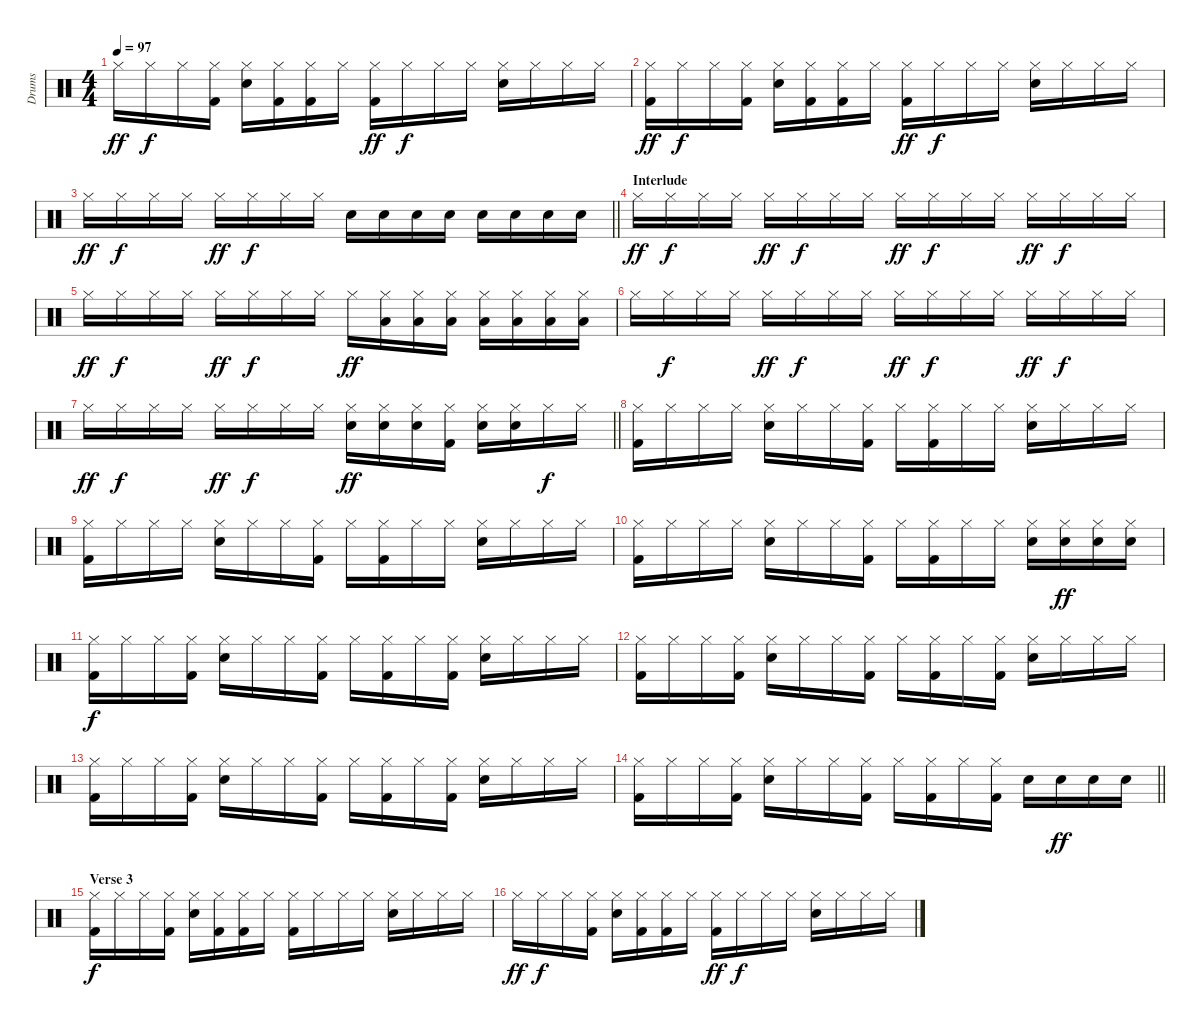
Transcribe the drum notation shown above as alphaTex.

\track ("Drums" "Drums") {instrument percussion}
\staff {score}
\articulation defaults
\ts (4 4)
\tempo 97
\clef neutral
\ks c "Hi-Hat (closed)".16{dy ff} "Hi-Hat (closed)".16{dy f} "Hi-Hat (closed)".16
("Hi-Hat (closed)" "Kick (hit) 2").16 ("Hi-Hat (closed)" "Snare (hit) 2").16 ("Hi-Hat (closed)" "Kick (hit) 2").16 ("Hi-Hat (closed)" "Kick (hit) 2").16 "Hi-Hat (closed)".16 ("Hi-Hat (closed)" "Kick (hit) 2").16{dy ff} "Hi-Hat (closed)".16{dy f} "Hi-Hat (closed)".16 "Hi-Hat (closed)".16 ("Hi-Hat (closed)" "Snare (hit) 2").16 "Hi-Hat (closed)".16 "Hi-Hat (closed)".16 "Hi-Hat (closed)".16 |
("Hi-Hat (closed)" "Kick (hit) 2").16{dy ff} "Hi-Hat (closed)".16{dy f} "Hi-Hat (closed)".16 ("Hi-Hat (closed)" "Kick (hit) 2").16 ("Hi-Hat (closed)" "Snare (hit) 2").16 ("Hi-Hat (closed)" "Kick (hit) 2").16 ("Hi-Hat (closed)" "Kick (hit) 2").16 "Hi-Hat (closed)".16 ("Hi-Hat (closed)" "Kick (hit) 2").16{dy ff} "Hi-Hat (closed)".16{dy f} "Hi-Hat (closed)".16 "Hi-Hat (closed)".16 ("Hi-Hat (closed)" "Snare (hit) 2").16 "Hi-Hat (closed)".16 "Hi-Hat (closed)".16 "Hi-Hat (closed)".16 |
\barLineRight lightlight "Hi-Hat (closed)".16{dy ff} "Hi-Hat (closed)".16{dy f} "Hi-Hat (closed)".16 "Hi-Hat (closed)".16 "Hi-Hat (closed)".16{dy ff} "Hi-Hat (closed)".16{dy f} "Hi-Hat (closed)".16 "Hi-Hat (closed)".16 "Snare (hit) 2".16 "Snare (hit) 2".16 "Snare (hit) 2".16 "Snare (hit) 2".16 "Snare (hit) 2".16 "Snare (hit) 2".16 "Snare (hit) 2".16 "Snare (hit) 2".16
|
\section ("" "Interlude")
"Hi-Hat (closed)".16{dy ff} "Hi-Hat (closed)".16{dy f} "Hi-Hat (closed)".16 "Hi-Hat (closed)".16 "Hi-Hat (closed)".16{dy ff} "Hi-Hat (closed)".16{dy f} "Hi-Hat (closed)".16 "Hi-Hat (closed)".16 "Hi-Hat (closed)".16{dy ff} "Hi-Hat (closed)".16{dy f} "Hi-Hat (closed)".16 "Hi-Hat (closed)".16 "Hi-Hat (closed)".16{dy ff} "Hi-Hat (closed)".16{dy f} "Hi-Hat (closed)".16 "Hi-Hat (closed)".16 |
"Hi-Hat (closed)".16{dy ff} "Hi-Hat (closed)".16{dy f} "Hi-Hat (closed)".16 "Hi-Hat (closed)".16 "Hi-Hat (closed)".16{dy ff} "Hi-Hat (closed)".16{dy f} "Hi-Hat (closed)".16 "Hi-Hat (closed)".16 "Hi-Hat (closed)".16{dy ff} ("Hi-Hat (closed)" "Low Tom (hit)").16 ("Hi-Hat (closed)" "Low Tom (hit)").16 ("Hi-Hat (closed)" "Low Tom (hit)").16 ("Hi-Hat (closed)" "Low Tom (hit)").16 ("Hi-Hat (closed)" "Low Tom (hit)").16 ("Hi-Hat (closed)" "Low Tom (hit)").16 ("Hi-Hat (closed)" "Low Tom (hit)").16 |
"Hi-Hat (closed)".16 "Hi-Hat (closed)".16{dy f} "Hi-Hat (closed)".16 "Hi-Hat (closed)".16 "Hi-Hat (closed)".16{dy ff} "Hi-Hat (closed)".16{dy f} "Hi-Hat (closed)".16 "Hi-Hat (closed)".16 "Hi-Hat (closed)".16{dy ff} "Hi-Hat (closed)".16{dy f} "Hi-Hat (closed)".16 "Hi-Hat (closed)".16 "Hi-Hat (closed)".16{dy ff} "Hi-Hat (closed)".16{dy f} "Hi-Hat (closed)".16 "Hi-Hat (closed)".16 |
\barLineRight lightlight "Hi-Hat (closed)".16{dy ff} "Hi-Hat (closed)".16{dy f} "Hi-Hat (closed)".16 "Hi-Hat (closed)".16 "Hi-Hat (closed)".16{dy ff} "Hi-Hat (closed)".16{dy f} "Hi-Hat (closed)".16 "Hi-Hat (closed)".16
("Hi-Hat (closed)" "Snare (hit) 2").16{dy ff} ("Hi-Hat (closed)" "Snare (hit) 2").16 ("Hi-Hat (closed)" "Snare (hit) 2").16 ("Hi-Hat (closed)" "Kick (hit) 2").16 ("Hi-Hat (closed)" "Snare (hit) 2").16 ("Hi-Hat (closed)" "Snare (hit) 2").16 "Hi-Hat (closed)".16{dy f} "Hi-Hat (closed)".16 |
("Hi-Hat (closed)" "Kick (hit) 2").16 "Hi-Hat (closed)".16 "Hi-Hat (closed)".16 "Hi-Hat (closed)".16 ("Hi-Hat (closed)" "Snare (hit) 2").16 "Hi-Hat (closed)".16 "Hi-Hat (closed)".16 ("Hi-Hat (closed)" "Kick (hit) 2").16 "Hi-Hat (closed)".16 ("Hi-Hat (closed)" "Kick (hit) 2").16 "Hi-Hat (closed)".16 "Hi-Hat (closed)".16 ("Hi-Hat (closed)" "Snare (hit) 2").16 "Hi-Hat (closed)".16 "Hi-Hat (closed)".16 "Hi-Hat (closed)".16 |
("Hi-Hat (closed)" "Kick (hit) 2").16 "Hi-Hat (closed)".16 "Hi-Hat (closed)".16 "Hi-Hat (closed)".16 ("Hi-Hat (closed)" "Snare (hit) 2").16 "Hi-Hat (closed)".16 "Hi-Hat (closed)".16 ("Hi-Hat (closed)" "Kick (hit) 2").16 "Hi-Hat (closed)".16 ("Hi-Hat (closed)" "Kick (hit) 2").16 "Hi-Hat (closed)".16 "Hi-Hat (closed)".16 ("Hi-Hat (closed)" "Snare (hit) 2").16 "Hi-Hat (closed)".16 "Hi-Hat (closed)".16 "Hi-Hat (closed)".16 |
("Hi-Hat (closed)" "Kick (hit) 2").16 "Hi-Hat (closed)".16 "Hi-Hat (closed)".16 "Hi-Hat (closed)".16 ("Hi-Hat (closed)" "Snare (hit) 2").16 "Hi-Hat (closed)".16 "Hi-Hat (closed)".16 ("Hi-Hat (closed)" "Kick (hit) 2").16 "Hi-Hat (closed)".16 ("Hi-Hat (closed)" "Kick (hit) 2").16 "Hi-Hat (closed)".16 "Hi-Hat (closed)".16 ("Hi-Hat (closed)" "Snare (hit) 2").16 ("Hi-Hat (closed)" "Snare (hit) 2").16{dy ff} ("Hi-Hat (closed)" "Snare (hit) 2").16 ("Hi-Hat (closed)" "Snare (hit) 2").16 |
("Hi-Hat (closed)" "Kick (hit) 2").16{dy f} "Hi-Hat (closed)".16 "Hi-Hat (closed)".16 ("Hi-Hat (closed)" "Kick (hit) 2").16 ("Hi-Hat (closed)" "Snare (hit) 2").16 "Hi-Hat (closed)".16 "Hi-Hat (closed)".16 ("Hi-Hat (closed)" "Kick (hit) 2").16 "Hi-Hat (closed)".16 ("Hi-Hat (closed)" "Kick (hit) 2").16 "Hi-Hat (closed)".16 ("Hi-Hat (closed)" "Kick (hit) 2").16 ("Hi-Hat (closed)" "Snare (hit) 2").16 "Hi-Hat (closed)".16 "Hi-Hat (closed)".16 "Hi-Hat (closed)".16 |
("Hi-Hat (closed)" "Kick (hit) 2").16 "Hi-Hat (closed)".16 "Hi-Hat (closed)".16 ("Hi-Hat (closed)" "Kick (hit) 2").16 ("Hi-Hat (closed)" "Snare (hit) 2").16 "Hi-Hat (closed)".16 "Hi-Hat (closed)".16 ("Hi-Hat (closed)" "Kick (hit) 2").16 "Hi-Hat (closed)".16 ("Hi-Hat (closed)" "Kick (hit) 2").16 "Hi-Hat (closed)".16 ("Hi-Hat (closed)" "Kick (hit) 2").16 ("Hi-Hat (closed)" "Snare (hit) 2").16 "Hi-Hat (closed)".16 "Hi-Hat (closed)".16 "Hi-Hat (closed)".16 |
("Hi-Hat (closed)" "Kick (hit) 2").16 "Hi-Hat (closed)".16 "Hi-Hat (closed)".16 ("Hi-Hat (closed)" "Kick (hit) 2").16 ("Hi-Hat (closed)" "Snare (hit) 2").16 "Hi-Hat (closed)".16 "Hi-Hat (closed)".16 ("Hi-Hat (closed)" "Kick (hit) 2").16 "Hi-Hat (closed)".16 ("Hi-Hat (closed)" "Kick (hit) 2").16 "Hi-Hat (closed)".16 ("Hi-Hat (closed)" "Kick (hit) 2").16 ("Hi-Hat (closed)" "Snare (hit) 2").16 "Hi-Hat (closed)".16 "Hi-Hat (closed)".16 "Hi-Hat (closed)".16 |
\barLineRight lightlight
("Hi-Hat (closed)" "Kick (hit) 2").16 "Hi-Hat (closed)".16 "Hi-Hat (closed)".16 ("Hi-Hat (closed)" "Kick (hit) 2").16 ("Hi-Hat (closed)" "Snare (hit) 2").16 "Hi-Hat (closed)".16 "Hi-Hat (closed)".16 ("Hi-Hat (closed)" "Kick (hit) 2").16 "Hi-Hat (closed)".16 ("Hi-Hat (closed)" "Kick (hit) 2").16 "Hi-Hat (closed)".16 ("Hi-Hat (closed)" "Kick (hit) 2").16 "Snare (hit) 2".16 "Snare (hit) 2".16{dy ff} "Snare (hit) 2".16 "Snare (hit) 2".16 |
\section ("" "Verse 3")
("Hi-Hat (closed)" "Kick (hit) 2").16{dy f} "Hi-Hat (closed)".16 "Hi-Hat (closed)".16 ("Hi-Hat (closed)" "Kick (hit) 2").16 ("Hi-Hat (closed)" "Snare (hit) 2").16 ("Hi-Hat (closed)" "Kick (hit) 2").16 ("Hi-Hat (closed)" "Kick (hit) 2").16 "Hi-Hat (closed)".16 ("Hi-Hat (closed)" "Kick (hit) 2").16 "Hi-Hat (closed)".16 "Hi-Hat (closed)".16 "Hi-Hat (closed)".16 ("Hi-Hat (closed)" "Snare (hit) 2").16 "Hi-Hat (closed)".16 "Hi-Hat (closed)".16 "Hi-Hat (closed)".16 |
"Hi-Hat (closed)".16{dy ff} "Hi-Hat (closed)".16{dy f} "Hi-Hat (closed)".16 ("Hi-Hat (closed)" "Kick (hit) 2").16 ("Hi-Hat (closed)" "Snare (hit) 2").16 ("Hi-Hat (closed)" "Kick (hit) 2").16 ("Hi-Hat (closed)" "Kick (hit) 2").16 "Hi-Hat (closed)".16 ("Hi-Hat (closed)" "Kick (hit) 2").16{dy ff} "Hi-Hat (closed)".16{dy f} "Hi-Hat (closed)".16 "Hi-Hat (closed)".16 ("Hi-Hat (closed)" "Snare (hit) 2").16 "Hi-Hat (closed)".16 "Hi-Hat (closed)".16 "Hi-Hat (closed)".16
